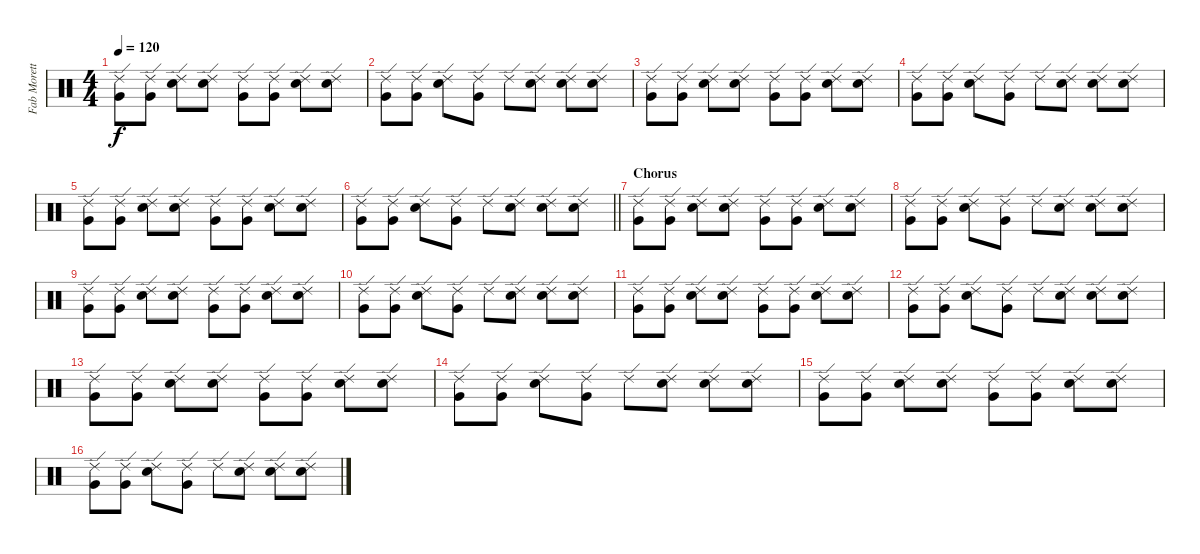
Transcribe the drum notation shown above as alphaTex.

\track ("Fab Moretti - Drums" "Fab Morett") {instrument percussion}
\staff {score}
\articulation defaults
\ts (4 4)
\tempo 120
\clef neutral
\ks c
("Ride (edge) 2" "Very Low Tom (hit)").8{dy f} ("Ride (edge) 2" "Very Low Tom (hit)").8 ("Ride (edge) 2" "Electric Snare (hit)").8 ("Ride (edge) 2" "Electric Snare (hit)").8 ("Ride (edge) 2" "Very Low Tom (hit)").8 ("Ride (edge) 2" "Very Low Tom (hit)").8 ("Ride (edge) 2" "Electric Snare (hit)").8 ("Ride (edge) 2" "Electric Snare (hit)").8 |
("Ride (edge) 2" "Very Low Tom (hit)").8 ("Ride (edge) 2" "Very Low Tom (hit)").8 ("Ride (edge) 2" "Electric Snare (hit)").8 ("Ride (edge) 2" "Very Low Tom (hit)").8 "Ride (edge) 2".8 ("Ride (edge) 2" "Electric Snare (hit)").8 ("Ride (edge) 2" "Electric Snare (hit)").8 ("Ride (edge) 2" "Electric Snare (hit)").8 |
("Ride (edge) 2" "Very Low Tom (hit)").8 ("Ride (edge) 2" "Very Low Tom (hit)").8 ("Ride (edge) 2" "Electric Snare (hit)").8 ("Ride (edge) 2" "Electric Snare (hit)").8 ("Ride (edge) 2" "Very Low Tom (hit)").8 ("Ride (edge) 2" "Very Low Tom (hit)").8 ("Ride (edge) 2" "Electric Snare (hit)").8 ("Ride (edge) 2" "Electric Snare (hit)").8 |
("Ride (edge) 2" "Very Low Tom (hit)").8 ("Ride (edge) 2" "Very Low Tom (hit)").8 ("Ride (edge) 2" "Electric Snare (hit)").8 ("Ride (edge) 2" "Very Low Tom (hit)").8 "Ride (edge) 2".8 ("Ride (edge) 2" "Electric Snare (hit)").8 ("Ride (edge) 2" "Electric Snare (hit)").8 ("Ride (edge) 2" "Electric Snare (hit)").8 |
("Ride (edge) 2" "Very Low Tom (hit)").8 ("Ride (edge) 2" "Very Low Tom (hit)").8 ("Ride (edge) 2" "Electric Snare (hit)").8 ("Ride (edge) 2" "Electric Snare (hit)").8 ("Ride (edge) 2" "Very Low Tom (hit)").8 ("Ride (edge) 2" "Very Low Tom (hit)").8 ("Ride (edge) 2" "Electric Snare (hit)").8 ("Ride (edge) 2" "Electric Snare (hit)").8 |
\barLineRight lightlight
("Ride (edge) 2" "Very Low Tom (hit)").8 ("Ride (edge) 2" "Very Low Tom (hit)").8 ("Ride (edge) 2" "Electric Snare (hit)").8 ("Ride (edge) 2" "Very Low Tom (hit)").8 "Ride (edge) 2".8 ("Ride (edge) 2" "Electric Snare (hit)").8 ("Ride (edge) 2" "Electric Snare (hit)").8 ("Ride (edge) 2" "Electric Snare (hit)").8 |
\section ("" "Chorus")
("Ride (edge) 2" "Very Low Tom (hit)").8 ("Ride (edge) 2" "Very Low Tom (hit)").8 ("Ride (edge) 2" "Electric Snare (hit)").8 ("Ride (edge) 2" "Electric Snare (hit)").8 ("Ride (edge) 2" "Very Low Tom (hit)").8 ("Ride (edge) 2" "Very Low Tom (hit)").8 ("Ride (edge) 2" "Electric Snare (hit)").8 ("Ride (edge) 2" "Electric Snare (hit)").8 |
("Ride (edge) 2" "Very Low Tom (hit)").8 ("Ride (edge) 2" "Very Low Tom (hit)").8 ("Ride (edge) 2" "Electric Snare (hit)").8 ("Ride (edge) 2" "Very Low Tom (hit)").8 "Ride (edge) 2".8 ("Ride (edge) 2" "Electric Snare (hit)").8 ("Ride (edge) 2" "Electric Snare (hit)").8 ("Ride (edge) 2" "Electric Snare (hit)").8 |
("Ride (edge) 2" "Very Low Tom (hit)").8 ("Ride (edge) 2" "Very Low Tom (hit)").8 ("Ride (edge) 2" "Electric Snare (hit)").8 ("Ride (edge) 2" "Electric Snare (hit)").8 ("Ride (edge) 2" "Very Low Tom (hit)").8 ("Ride (edge) 2" "Very Low Tom (hit)").8 ("Ride (edge) 2" "Electric Snare (hit)").8 ("Ride (edge) 2" "Electric Snare (hit)").8 |
("Ride (edge) 2" "Very Low Tom (hit)").8 ("Ride (edge) 2" "Very Low Tom (hit)").8 ("Ride (edge) 2" "Electric Snare (hit)").8 ("Ride (edge) 2" "Very Low Tom (hit)").8 "Ride (edge) 2".8 ("Ride (edge) 2" "Electric Snare (hit)").8 ("Ride (edge) 2" "Electric Snare (hit)").8 ("Ride (edge) 2" "Electric Snare (hit)").8 |
("Ride (edge) 2" "Very Low Tom (hit)").8 ("Ride (edge) 2" "Very Low Tom (hit)").8 ("Ride (edge) 2" "Electric Snare (hit)").8 ("Ride (edge) 2" "Electric Snare (hit)").8 ("Ride (edge) 2" "Very Low Tom (hit)").8 ("Ride (edge) 2" "Very Low Tom (hit)").8 ("Ride (edge) 2" "Electric Snare (hit)").8 ("Ride (edge) 2" "Electric Snare (hit)").8 |
("Ride (edge) 2" "Very Low Tom (hit)").8 ("Ride (edge) 2" "Very Low Tom (hit)").8 ("Ride (edge) 2" "Electric Snare (hit)").8 ("Ride (edge) 2" "Very Low Tom (hit)").8 "Ride (edge) 2".8 ("Ride (edge) 2" "Electric Snare (hit)").8 ("Ride (edge) 2" "Electric Snare (hit)").8 ("Ride (edge) 2" "Electric Snare (hit)").8 |
("Ride (edge) 2" "Very Low Tom (hit)").8 ("Ride (edge) 2" "Very Low Tom (hit)").8 ("Ride (edge) 2" "Electric Snare (hit)").8 ("Ride (edge) 2" "Electric Snare (hit)").8 ("Ride (edge) 2" "Very Low Tom (hit)").8 ("Ride (edge) 2" "Very Low Tom (hit)").8 ("Ride (edge) 2" "Electric Snare (hit)").8 ("Ride (edge) 2" "Electric Snare (hit)").8 |
("Ride (edge) 2" "Very Low Tom (hit)").8 ("Ride (edge) 2" "Very Low Tom (hit)").8 ("Ride (edge) 2" "Electric Snare (hit)").8 ("Ride (edge) 2" "Very Low Tom (hit)").8 "Ride (edge) 2".8 ("Ride (edge) 2" "Electric Snare (hit)").8 ("Ride (edge) 2" "Electric Snare (hit)").8 ("Ride (edge) 2" "Electric Snare (hit)").8 |
("Ride (edge) 2" "Very Low Tom (hit)").8 ("Ride (edge) 2" "Very Low Tom (hit)").8 ("Ride (edge) 2" "Electric Snare (hit)").8 ("Ride (edge) 2" "Electric Snare (hit)").8 ("Ride (edge) 2" "Very Low Tom (hit)").8 ("Ride (edge) 2" "Very Low Tom (hit)").8 ("Ride (edge) 2" "Electric Snare (hit)").8 ("Ride (edge) 2" "Electric Snare (hit)").8 |
("Ride (edge) 2" "Very Low Tom (hit)").8 ("Ride (edge) 2" "Very Low Tom (hit)").8 ("Ride (edge) 2" "Electric Snare (hit)").8 ("Ride (edge) 2" "Very Low Tom (hit)").8 "Ride (edge) 2".8 ("Ride (edge) 2" "Electric Snare (hit)").8 ("Ride (edge) 2" "Electric Snare (hit)").8 ("Ride (edge) 2" "Electric Snare (hit)").8
